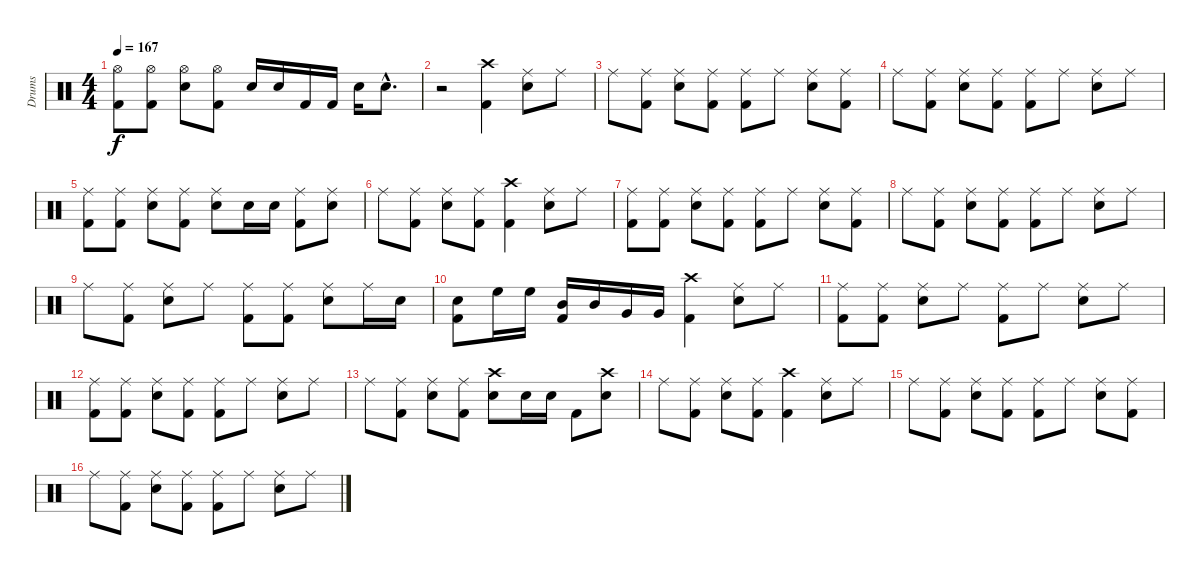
\track ("Drums" "Drums") {instrument percussion}
\staff {score}
\articulation defaults
\ts (4 4)
\tempo 167
\clef neutral
\ks c
("Kick (hit) 2" "Hi-Hat (open)").8{dy f} ("Kick (hit) 2" "Hi-Hat (open)").8 ("Snare (hit) 2" "Hi-Hat (open)").8 ("Kick (hit) 2" "Hi-Hat (open)").8 "Snare (hit) 2".16 "Snare (hit) 2".16 "Kick (hit) 2".16 "Kick (hit) 2".16 "Snare (hit) 2".16 "Snare (hit) 2"{hac}.8{d} |
r.2 ("Kick (hit) 2" "Crash high (hit)").4 ("Ride (middle)" "Snare (hit) 2").8 "Ride (middle)".8 |
"Ride (middle)".8 ("Ride (middle)" "Kick (hit) 2").8 ("Ride (middle)" "Snare (hit) 2").8 ("Ride (middle)" "Kick (hit) 2").8 ("Kick (hit) 2" "Ride (middle)").8 "Ride (middle)".8 ("Snare (hit) 2" "Ride (middle)").8 ("Kick (hit) 2" "Ride (middle)").8 |
"Ride (middle)".8 ("Kick (hit) 2" "Ride (middle)").8 ("Snare (hit) 2" "Ride (middle)").8 ("Kick (hit) 2" "Ride (middle)").8 ("Kick (hit) 2" "Ride (middle)").8 "Ride (middle)".8 ("Snare (hit) 2" "Ride (middle)").8 "Ride (middle)".8 |
("Ride (middle)" "Kick (hit) 2").8 ("Kick (hit) 2" "Ride (middle)").8 ("Snare (hit) 2" "Ride (middle)").8 ("Kick (hit) 2" "Ride (middle)").8 ("Ride (middle)" "Snare (hit) 2").8 "Snare (hit) 2".16 "Snare (hit) 2".16 ("Ride (middle)" "Kick (hit) 2").8 ("Ride (middle)" "Snare (hit) 2").8 |
"Ride (middle)".8 ("Kick (hit) 2" "Ride (middle)").8 ("Snare (hit) 2" "Ride (middle)").8 ("Kick (hit) 2" "Ride (middle)").8 ("Kick (hit) 2" "Crash high (hit)").4 ("Ride (middle)" "Snare (hit) 2").8 "Ride (middle)".8 |
("Ride (middle)" "Kick (hit) 2").8 ("Ride (middle)" "Kick (hit) 2").8 ("Ride (middle)" "Snare (hit) 2").8 ("Ride (middle)" "Kick (hit) 2").8 ("Kick (hit) 2" "Ride (middle)").8 "Ride (middle)".8 ("Snare (hit) 2" "Ride (middle)").8 ("Kick (hit) 2" "Ride (middle)").8 |
"Ride (middle)".8 ("Kick (hit) 2" "Ride (middle)").8 ("Snare (hit) 2" "Ride (middle)").8 ("Kick (hit) 2" "Ride (middle)").8 ("Kick (hit) 2" "Ride (middle)").8 "Ride (middle)".8 ("Snare (hit) 2" "Ride (middle)").8 "Ride (middle)".8 |
"Ride (middle)".8 ("Kick (hit) 2" "Ride (middle)").8 ("Snare (hit) 2" "Ride (middle)").8 "Ride (middle)".8 ("Kick (hit) 2" "Ride (middle)").8 ("Kick (hit) 2" "Ride (middle)").8 ("Snare (hit) 2" "Ride (middle)").8 "Ride (middle)".16 "Snare (hit) 2".16 |
("Kick (hit) 2" "Snare (hit) 2").8 "High Floor Tom (hit)".16 "High Floor Tom (hit)".16 ("Kick (hit) 2" "Mid Tom (hit)").16 "Mid Tom (hit)".16 "Very Low Tom (hit)".16 "Very Low Tom (hit)".16 ("Kick (hit) 2" "Crash high (hit)").4 ("Ride (middle)" "Snare (hit) 2").8 "Ride (middle)".8 |
("Ride (middle)" "Kick (hit) 2").8 ("Ride (middle)" "Kick (hit) 2").8 ("Ride (middle)" "Snare (hit) 2").8 "Ride (middle)".8 ("Kick (hit) 2" "Ride (middle)").8 "Ride (middle)".8 ("Snare (hit) 2" "Ride (middle)").8 "Ride (middle)".8 |
("Ride (middle)" "Kick (hit) 2").8 ("Kick (hit) 2" "Ride (middle)").8 ("Snare (hit) 2" "Ride (middle)").8 ("Kick (hit) 2" "Ride (middle)").8 ("Kick (hit) 2" "Ride (middle)").8 "Ride (middle)".8 ("Snare (hit) 2" "Ride (middle)").8 "Ride (middle)".8 |
"Ride (middle)".8 ("Kick (hit) 2" "Ride (middle)").8 ("Snare (hit) 2" "Ride (middle)").8 ("Kick (hit) 2" "Ride (middle)").8 ("Crash high (hit)" "Snare (hit) 2").8 "Snare (hit) 2".16 "Snare (hit) 2".16 "Kick (hit) 2".8 ("Crash high (hit)" "Snare (hit) 2").8 |
"Ride (middle)".8 ("Kick (hit) 2" "Ride (middle)").8 ("Snare (hit) 2" "Ride (middle)").8 ("Kick (hit) 2" "Ride (middle)").8 ("Kick (hit) 2" "Crash high (hit)").4 ("Ride (middle)" "Snare (hit) 2").8 "Ride (middle)".8 |
"Ride (middle)".8 ("Ride (middle)" "Kick (hit) 2").8 ("Ride (middle)" "Snare (hit) 2").8 ("Ride (middle)" "Kick (hit) 2").8 ("Kick (hit) 2" "Ride (middle)").8 "Ride (middle)".8 ("Snare (hit) 2" "Ride (middle)").8 ("Kick (hit) 2" "Ride (middle)").8 |
"Ride (middle)".8 ("Kick (hit) 2" "Ride (middle)").8 ("Snare (hit) 2" "Ride (middle)").8 ("Kick (hit) 2" "Ride (middle)").8 ("Kick (hit) 2" "Ride (middle)").8 "Ride (middle)".8 ("Snare (hit) 2" "Ride (middle)").8 "Ride (middle)".8
